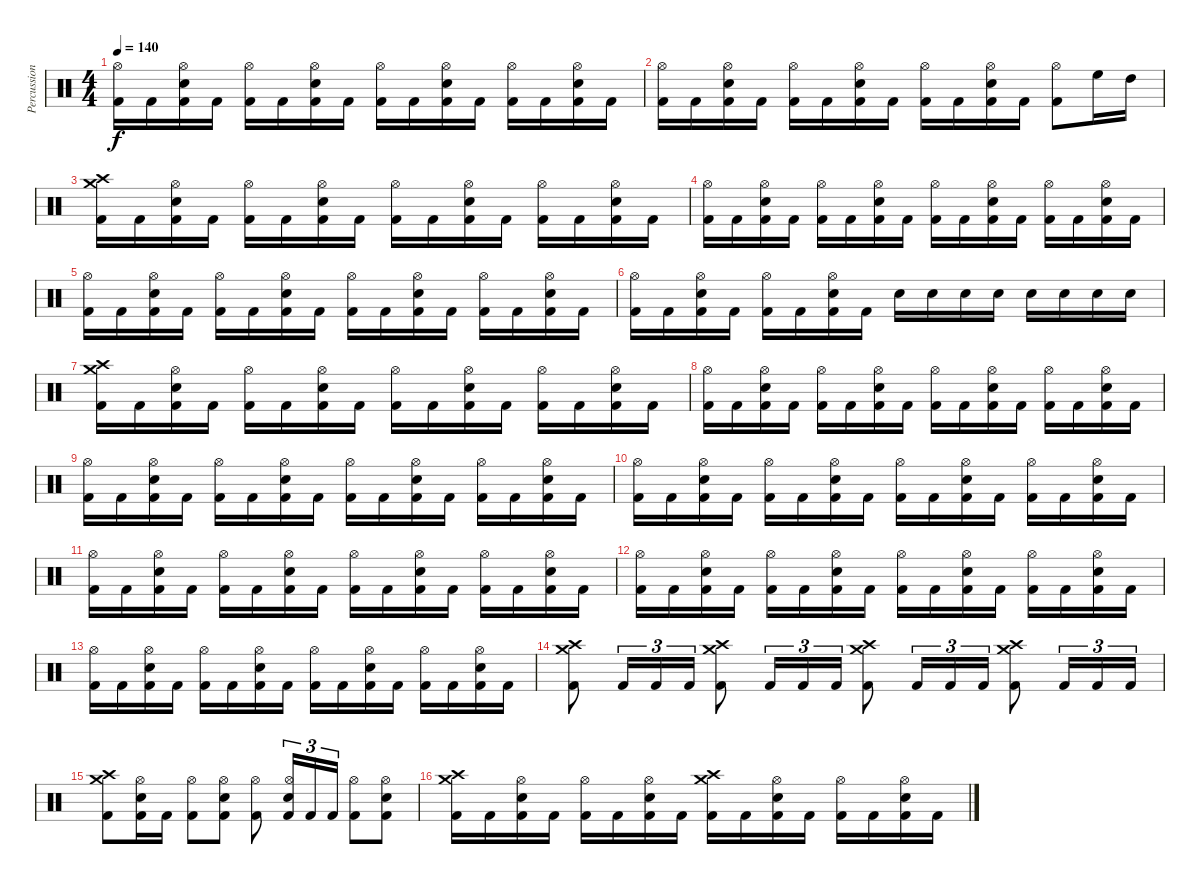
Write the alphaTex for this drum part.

\track ("Percussion" "Percussion") {instrument percussion}
\staff {score}
\articulation defaults
\ts (4 4)
\tempo 140
\clef neutral
\ks c
("Kick (hit) 2" "Hi-Hat (open)").16{dy f} "Kick (hit) 2".16 ("Kick (hit) 2" "Electric Snare (hit)" "Hi-Hat (open)").16 "Kick (hit) 2".16 ("Kick (hit) 2" "Hi-Hat (open)").16 "Kick (hit) 2".16 ("Kick (hit) 2" "Electric Snare (hit)" "Hi-Hat (open)").16 "Kick (hit) 2".16 ("Kick (hit) 2" "Hi-Hat (open)").16 "Kick (hit) 2".16 ("Kick (hit) 2" "Electric Snare (hit)" "Hi-Hat (open)").16 "Kick (hit) 2".16 ("Kick (hit) 2" "Hi-Hat (open)").16 "Kick (hit) 2".16 ("Kick (hit) 2" "Electric Snare (hit)" "Hi-Hat (open)").16 "Kick (hit) 2".16 |
("Kick (hit) 2" "Hi-Hat (open)").16 "Kick (hit) 2".16 ("Kick (hit) 2" "Electric Snare (hit)" "Hi-Hat (open)").16 "Kick (hit) 2".16 ("Kick (hit) 2" "Hi-Hat (open)").16 "Kick (hit) 2".16 ("Kick (hit) 2" "Electric Snare (hit)" "Hi-Hat (open)").16 "Kick (hit) 2".16 ("Kick (hit) 2" "Hi-Hat (open)").16 "Kick (hit) 2".16 ("Kick (hit) 2" "Electric Snare (hit)" "Hi-Hat (open)").16 "Kick (hit) 2".16 ("Kick (hit) 2" "Hi-Hat (open)").8 "High Floor Tom (hit)".16 "High Tom (hit)".16 |
("Kick (hit) 2" "Crash high (hit)" "Crash medium (hit)").16 "Kick (hit) 2".16 ("Kick (hit) 2" "Electric Snare (hit)" "Hi-Hat (open)").16 "Kick (hit) 2".16 ("Kick (hit) 2" "Hi-Hat (open)").16 "Kick (hit) 2".16 ("Kick (hit) 2" "Electric Snare (hit)" "Hi-Hat (open)").16 "Kick (hit) 2".16 ("Kick (hit) 2" "Hi-Hat (open)").16 "Kick (hit) 2".16 ("Kick (hit) 2" "Electric Snare (hit)" "Hi-Hat (open)").16 "Kick (hit) 2".16 ("Kick (hit) 2" "Hi-Hat (open)").16 "Kick (hit) 2".16 ("Kick (hit) 2" "Electric Snare (hit)" "Hi-Hat (open)").16 "Kick (hit) 2".16 |
("Kick (hit) 2" "Hi-Hat (open)").16 "Kick (hit) 2".16 ("Kick (hit) 2" "Electric Snare (hit)" "Hi-Hat (open)").16 "Kick (hit) 2".16 ("Kick (hit) 2" "Hi-Hat (open)").16 "Kick (hit) 2".16 ("Kick (hit) 2" "Electric Snare (hit)" "Hi-Hat (open)").16 "Kick (hit) 2".16 ("Kick (hit) 2" "Hi-Hat (open)").16 "Kick (hit) 2".16 ("Kick (hit) 2" "Electric Snare (hit)" "Hi-Hat (open)").16 "Kick (hit) 2".16 ("Kick (hit) 2" "Hi-Hat (open)").16 "Kick (hit) 2".16 ("Kick (hit) 2" "Electric Snare (hit)" "Hi-Hat (open)").16 "Kick (hit) 2".16 |
("Kick (hit) 2" "Hi-Hat (open)").16 "Kick (hit) 2".16 ("Kick (hit) 2" "Electric Snare (hit)" "Hi-Hat (open)").16 "Kick (hit) 2".16 ("Kick (hit) 2" "Hi-Hat (open)").16 "Kick (hit) 2".16 ("Kick (hit) 2" "Electric Snare (hit)" "Hi-Hat (open)").16 "Kick (hit) 2".16 ("Kick (hit) 2" "Hi-Hat (open)").16 "Kick (hit) 2".16 ("Kick (hit) 2" "Electric Snare (hit)" "Hi-Hat (open)").16 "Kick (hit) 2".16 ("Kick (hit) 2" "Hi-Hat (open)").16 "Kick (hit) 2".16 ("Kick (hit) 2" "Electric Snare (hit)" "Hi-Hat (open)").16 "Kick (hit) 2".16 |
("Kick (hit) 2" "Hi-Hat (open)").16 "Kick (hit) 2".16 ("Kick (hit) 2" "Electric Snare (hit)" "Hi-Hat (open)").16 "Kick (hit) 2".16 ("Kick (hit) 2" "Hi-Hat (open)").16 "Kick (hit) 2".16 ("Kick (hit) 2" "Electric Snare (hit)" "Hi-Hat (open)").16 "Kick (hit) 2".16 "Electric Snare (hit)".16 "Electric Snare (hit)".16 "Electric Snare (hit)".16 "Electric Snare (hit)".16 "Electric Snare (hit)".16 "Electric Snare (hit)".16 "Electric Snare (hit)".16 "Electric Snare (hit)".16 |
("Kick (hit) 2" "Crash high (hit)" "Crash medium (hit)").16 "Kick (hit) 2".16 ("Kick (hit) 2" "Electric Snare (hit)" "Hi-Hat (open)").16 "Kick (hit) 2".16 ("Kick (hit) 2" "Hi-Hat (open)").16 "Kick (hit) 2".16 ("Kick (hit) 2" "Electric Snare (hit)" "Hi-Hat (open)").16 "Kick (hit) 2".16 ("Kick (hit) 2" "Hi-Hat (open)").16 "Kick (hit) 2".16 ("Kick (hit) 2" "Electric Snare (hit)" "Hi-Hat (open)").16 "Kick (hit) 2".16 ("Kick (hit) 2" "Hi-Hat (open)").16 "Kick (hit) 2".16 ("Kick (hit) 2" "Electric Snare (hit)" "Hi-Hat (open)").16 "Kick (hit) 2".16 |
("Kick (hit) 2" "Hi-Hat (open)").16 "Kick (hit) 2".16 ("Kick (hit) 2" "Electric Snare (hit)" "Hi-Hat (open)").16 "Kick (hit) 2".16 ("Kick (hit) 2" "Hi-Hat (open)").16 "Kick (hit) 2".16 ("Kick (hit) 2" "Electric Snare (hit)" "Hi-Hat (open)").16 "Kick (hit) 2".16 ("Kick (hit) 2" "Hi-Hat (open)").16 "Kick (hit) 2".16 ("Kick (hit) 2" "Electric Snare (hit)" "Hi-Hat (open)").16 "Kick (hit) 2".16 ("Kick (hit) 2" "Hi-Hat (open)").16 "Kick (hit) 2".16 ("Kick (hit) 2" "Electric Snare (hit)" "Hi-Hat (open)").16 "Kick (hit) 2".16 |
("Kick (hit) 2" "Hi-Hat (open)").16 "Kick (hit) 2".16 ("Kick (hit) 2" "Electric Snare (hit)" "Hi-Hat (open)").16 "Kick (hit) 2".16 ("Kick (hit) 2" "Hi-Hat (open)").16 "Kick (hit) 2".16 ("Kick (hit) 2" "Electric Snare (hit)" "Hi-Hat (open)").16 "Kick (hit) 2".16 ("Kick (hit) 2" "Hi-Hat (open)").16 "Kick (hit) 2".16 ("Kick (hit) 2" "Electric Snare (hit)" "Hi-Hat (open)").16 "Kick (hit) 2".16 ("Kick (hit) 2" "Hi-Hat (open)").16 "Kick (hit) 2".16 ("Kick (hit) 2" "Electric Snare (hit)" "Hi-Hat (open)").16 "Kick (hit) 2".16 |
("Kick (hit) 2" "Hi-Hat (open)").16 "Kick (hit) 2".16 ("Kick (hit) 2" "Electric Snare (hit)" "Hi-Hat (open)").16 "Kick (hit) 2".16 ("Kick (hit) 2" "Hi-Hat (open)").16 "Kick (hit) 2".16 ("Kick (hit) 2" "Electric Snare (hit)" "Hi-Hat (open)").16 "Kick (hit) 2".16 ("Kick (hit) 2" "Hi-Hat (open)").16 "Kick (hit) 2".16 ("Kick (hit) 2" "Electric Snare (hit)" "Hi-Hat (open)").16 "Kick (hit) 2".16 ("Kick (hit) 2" "Hi-Hat (open)").16 "Kick (hit) 2".16 ("Kick (hit) 2" "Electric Snare (hit)" "Hi-Hat (open)").16 "Kick (hit) 2".16 |
("Kick (hit) 2" "Hi-Hat (open)").16 "Kick (hit) 2".16 ("Kick (hit) 2" "Electric Snare (hit)" "Hi-Hat (open)").16 "Kick (hit) 2".16 ("Kick (hit) 2" "Hi-Hat (open)").16 "Kick (hit) 2".16 ("Kick (hit) 2" "Electric Snare (hit)" "Hi-Hat (open)").16 "Kick (hit) 2".16 ("Kick (hit) 2" "Hi-Hat (open)").16 "Kick (hit) 2".16 ("Kick (hit) 2" "Electric Snare (hit)" "Hi-Hat (open)").16 "Kick (hit) 2".16 ("Kick (hit) 2" "Hi-Hat (open)").16 "Kick (hit) 2".16 ("Kick (hit) 2" "Electric Snare (hit)" "Hi-Hat (open)").16 "Kick (hit) 2".16 |
("Kick (hit) 2" "Hi-Hat (open)").16 "Kick (hit) 2".16 ("Kick (hit) 2" "Electric Snare (hit)" "Hi-Hat (open)").16 "Kick (hit) 2".16 ("Kick (hit) 2" "Hi-Hat (open)").16 "Kick (hit) 2".16 ("Kick (hit) 2" "Electric Snare (hit)" "Hi-Hat (open)").16 "Kick (hit) 2".16 ("Kick (hit) 2" "Hi-Hat (open)").16 "Kick (hit) 2".16 ("Kick (hit) 2" "Electric Snare (hit)" "Hi-Hat (open)").16 "Kick (hit) 2".16 ("Kick (hit) 2" "Hi-Hat (open)").16 "Kick (hit) 2".16 ("Kick (hit) 2" "Electric Snare (hit)" "Hi-Hat (open)").16 "Kick (hit) 2".16 |
("Kick (hit) 2" "Hi-Hat (open)").16 "Kick (hit) 2".16 ("Kick (hit) 2" "Electric Snare (hit)" "Hi-Hat (open)").16 "Kick (hit) 2".16 ("Kick (hit) 2" "Hi-Hat (open)").16 "Kick (hit) 2".16 ("Kick (hit) 2" "Electric Snare (hit)" "Hi-Hat (open)").16 "Kick (hit) 2".16 ("Kick (hit) 2" "Hi-Hat (open)").16 "Kick (hit) 2".16 ("Kick (hit) 2" "Electric Snare (hit)" "Hi-Hat (open)").16 "Kick (hit) 2".16 ("Kick (hit) 2" "Hi-Hat (open)").16 "Kick (hit) 2".16 ("Kick (hit) 2" "Electric Snare (hit)" "Hi-Hat (open)").16 "Kick (hit) 2".16 |
("Kick (hit) 2" "Crash high (hit)" "Crash medium (hit)").8 "Kick (hit) 2".16{tu (3 2)} "Kick (hit) 2".16{tu (3 2)} "Kick (hit) 2".16{tu (3 2)} ("Kick (hit) 2" "Crash high (hit)" "Crash medium (hit)").8 "Kick (hit) 2".16{tu (3 2)} "Kick (hit) 2".16{tu (3 2)} "Kick (hit) 2".16{tu (3 2)} ("Kick (hit) 2" "Crash high (hit)" "Crash medium (hit)").8 "Kick (hit) 2".16{tu (3 2)} "Kick (hit) 2".16{tu (3 2)} "Kick (hit) 2".16{tu (3 2)} ("Kick (hit) 2" "Crash high (hit)" "Crash medium (hit)").8 "Kick (hit) 2".16{tu (3 2)} "Kick (hit) 2".16{tu (3 2)} "Kick (hit) 2".16{tu (3 2)} |
("Kick (hit) 2" "Crash high (hit)" "Crash medium (hit)").8 ("Kick (hit) 2" "Electric Snare (hit)" "Hi-Hat (open)").16 "Kick (hit) 2".16 ("Kick (hit) 2" "Hi-Hat (open)").8 ("Kick (hit) 2" "Electric Snare (hit)" "Hi-Hat (open)").8 ("Kick (hit) 2" "Hi-Hat (open)").8 ("Kick (hit) 2" "Electric Snare (hit)" "Hi-Hat (open)").16{tu (3 2)} "Kick (hit) 2".16{tu (3 2)} "Kick (hit) 2".16{tu (3 2)} ("Kick (hit) 2" "Hi-Hat (open)").8 ("Kick (hit) 2" "Electric Snare (hit)" "Hi-Hat (open)").8 |
("Kick (hit) 2" "Crash high (hit)" "Crash medium (hit)").16 "Kick (hit) 2".16 ("Kick (hit) 2" "Electric Snare (hit)" "Hi-Hat (open)").16 "Kick (hit) 2".16 ("Kick (hit) 2" "Hi-Hat (open)").16 "Kick (hit) 2".16 ("Kick (hit) 2" "Electric Snare (hit)" "Hi-Hat (open)").16 "Kick (hit) 2".16 ("Kick (hit) 2" "Crash high (hit)" "Crash medium (hit)").16 "Kick (hit) 2".16 ("Kick (hit) 2" "Electric Snare (hit)" "Hi-Hat (open)").16 "Kick (hit) 2".16 ("Kick (hit) 2" "Hi-Hat (open)").16 "Kick (hit) 2".16 ("Kick (hit) 2" "Electric Snare (hit)" "Hi-Hat (open)").16 "Kick (hit) 2".16
